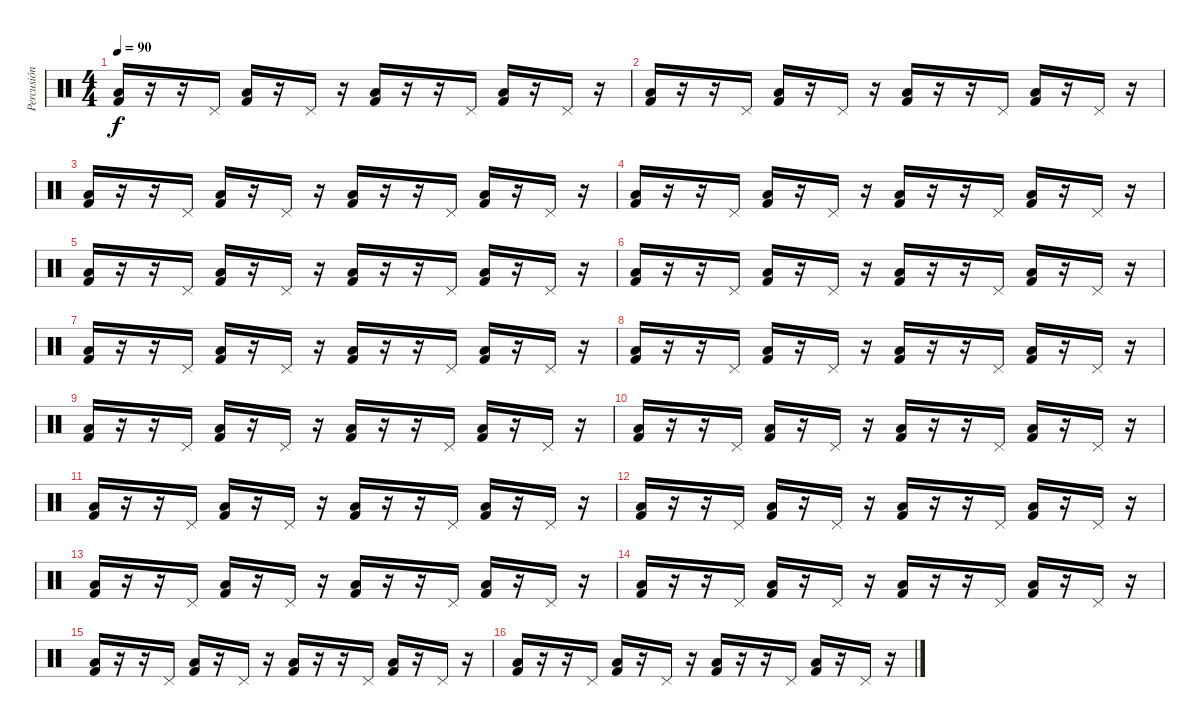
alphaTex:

\track ("Percusión" "Percusión") {instrument percussion}
\staff {score}
\articulation defaults
\ts (4 4)
\tempo 90
\clef neutral
\ks c
("Low Floor Tom (hit)" "Kick (hit) 2").16{dy f} r.16 r.16 "Pedal Hi-Hat (hit)".16 ("Low Floor Tom (hit)" "Kick (hit) 2").16 r.16 "Pedal Hi-Hat (hit)".16 r.16 ("Low Floor Tom (hit)" "Kick (hit) 2").16 r.16 r.16 "Pedal Hi-Hat (hit)".16 ("Low Floor Tom (hit)" "Kick (hit) 2").16 r.16 "Pedal Hi-Hat (hit)".16 r.16 |
("Low Floor Tom (hit)" "Kick (hit) 2").16 r.16 r.16 "Pedal Hi-Hat (hit)".16 ("Low Floor Tom (hit)" "Kick (hit) 2").16 r.16 "Pedal Hi-Hat (hit)".16 r.16 ("Low Floor Tom (hit)" "Kick (hit) 2").16 r.16 r.16 "Pedal Hi-Hat (hit)".16 ("Low Floor Tom (hit)" "Kick (hit) 2").16 r.16 "Pedal Hi-Hat (hit)".16 r.16 |
("Low Floor Tom (hit)" "Kick (hit) 2").16 r.16 r.16 "Pedal Hi-Hat (hit)".16 ("Low Floor Tom (hit)" "Kick (hit) 2").16 r.16 "Pedal Hi-Hat (hit)".16 r.16 ("Low Floor Tom (hit)" "Kick (hit) 2").16 r.16 r.16 "Pedal Hi-Hat (hit)".16 ("Low Floor Tom (hit)" "Kick (hit) 2").16 r.16 "Pedal Hi-Hat (hit)".16 r.16 |
("Low Floor Tom (hit)" "Kick (hit) 2").16 r.16 r.16 "Pedal Hi-Hat (hit)".16 ("Low Floor Tom (hit)" "Kick (hit) 2").16 r.16 "Pedal Hi-Hat (hit)".16 r.16 ("Low Floor Tom (hit)" "Kick (hit) 2").16 r.16 r.16 "Pedal Hi-Hat (hit)".16 ("Low Floor Tom (hit)" "Kick (hit) 2").16 r.16 "Pedal Hi-Hat (hit)".16 r.16 |
("Low Floor Tom (hit)" "Kick (hit) 2").16 r.16 r.16 "Pedal Hi-Hat (hit)".16 ("Low Floor Tom (hit)" "Kick (hit) 2").16 r.16 "Pedal Hi-Hat (hit)".16 r.16 ("Low Floor Tom (hit)" "Kick (hit) 2").16 r.16 r.16 "Pedal Hi-Hat (hit)".16 ("Low Floor Tom (hit)" "Kick (hit) 2").16 r.16 "Pedal Hi-Hat (hit)".16 r.16 |
("Low Floor Tom (hit)" "Kick (hit) 2").16 r.16 r.16 "Pedal Hi-Hat (hit)".16 ("Low Floor Tom (hit)" "Kick (hit) 2").16 r.16 "Pedal Hi-Hat (hit)".16 r.16 ("Low Floor Tom (hit)" "Kick (hit) 2").16 r.16 r.16 "Pedal Hi-Hat (hit)".16 ("Low Floor Tom (hit)" "Kick (hit) 2").16 r.16 "Pedal Hi-Hat (hit)".16 r.16 |
("Low Floor Tom (hit)" "Kick (hit) 2").16 r.16 r.16 "Pedal Hi-Hat (hit)".16 ("Low Floor Tom (hit)" "Kick (hit) 2").16 r.16 "Pedal Hi-Hat (hit)".16 r.16 ("Low Floor Tom (hit)" "Kick (hit) 2").16 r.16 r.16 "Pedal Hi-Hat (hit)".16 ("Low Floor Tom (hit)" "Kick (hit) 2").16 r.16 "Pedal Hi-Hat (hit)".16 r.16 |
("Low Floor Tom (hit)" "Kick (hit) 2").16 r.16 r.16 "Pedal Hi-Hat (hit)".16 ("Low Floor Tom (hit)" "Kick (hit) 2").16 r.16 "Pedal Hi-Hat (hit)".16 r.16 ("Low Floor Tom (hit)" "Kick (hit) 2").16 r.16 r.16 "Pedal Hi-Hat (hit)".16 ("Low Floor Tom (hit)" "Kick (hit) 2").16 r.16 "Pedal Hi-Hat (hit)".16 r.16 |
("Low Floor Tom (hit)" "Kick (hit) 2").16 r.16 r.16 "Pedal Hi-Hat (hit)".16 ("Low Floor Tom (hit)" "Kick (hit) 2").16 r.16 "Pedal Hi-Hat (hit)".16 r.16 ("Low Floor Tom (hit)" "Kick (hit) 2").16 r.16 r.16 "Pedal Hi-Hat (hit)".16 ("Low Floor Tom (hit)" "Kick (hit) 2").16 r.16 "Pedal Hi-Hat (hit)".16 r.16 |
("Low Floor Tom (hit)" "Kick (hit) 2").16 r.16 r.16 "Pedal Hi-Hat (hit)".16 ("Low Floor Tom (hit)" "Kick (hit) 2").16 r.16 "Pedal Hi-Hat (hit)".16 r.16 ("Low Floor Tom (hit)" "Kick (hit) 2").16 r.16 r.16 "Pedal Hi-Hat (hit)".16 ("Low Floor Tom (hit)" "Kick (hit) 2").16 r.16 "Pedal Hi-Hat (hit)".16 r.16 |
("Low Floor Tom (hit)" "Kick (hit) 2").16 r.16 r.16 "Pedal Hi-Hat (hit)".16 ("Low Floor Tom (hit)" "Kick (hit) 2").16 r.16 "Pedal Hi-Hat (hit)".16 r.16 ("Low Floor Tom (hit)" "Kick (hit) 2").16 r.16 r.16 "Pedal Hi-Hat (hit)".16 ("Low Floor Tom (hit)" "Kick (hit) 2").16 r.16 "Pedal Hi-Hat (hit)".16 r.16 |
("Low Floor Tom (hit)" "Kick (hit) 2").16 r.16 r.16 "Pedal Hi-Hat (hit)".16 ("Low Floor Tom (hit)" "Kick (hit) 2").16 r.16 "Pedal Hi-Hat (hit)".16 r.16 ("Low Floor Tom (hit)" "Kick (hit) 2").16 r.16 r.16 "Pedal Hi-Hat (hit)".16 ("Low Floor Tom (hit)" "Kick (hit) 2").16 r.16 "Pedal Hi-Hat (hit)".16 r.16 |
("Low Floor Tom (hit)" "Kick (hit) 2").16 r.16 r.16 "Pedal Hi-Hat (hit)".16 ("Low Floor Tom (hit)" "Kick (hit) 2").16 r.16 "Pedal Hi-Hat (hit)".16 r.16 ("Low Floor Tom (hit)" "Kick (hit) 2").16 r.16 r.16 "Pedal Hi-Hat (hit)".16 ("Low Floor Tom (hit)" "Kick (hit) 2").16 r.16 "Pedal Hi-Hat (hit)".16 r.16 |
("Low Floor Tom (hit)" "Kick (hit) 2").16 r.16 r.16 "Pedal Hi-Hat (hit)".16 ("Low Floor Tom (hit)" "Kick (hit) 2").16 r.16 "Pedal Hi-Hat (hit)".16 r.16 ("Low Floor Tom (hit)" "Kick (hit) 2").16 r.16 r.16 "Pedal Hi-Hat (hit)".16 ("Low Floor Tom (hit)" "Kick (hit) 2").16 r.16 "Pedal Hi-Hat (hit)".16 r.16 |
("Low Floor Tom (hit)" "Kick (hit) 2").16 r.16 r.16 "Pedal Hi-Hat (hit)".16 ("Low Floor Tom (hit)" "Kick (hit) 2").16 r.16 "Pedal Hi-Hat (hit)".16 r.16 ("Low Floor Tom (hit)" "Kick (hit) 2").16 r.16 r.16 "Pedal Hi-Hat (hit)".16 ("Low Floor Tom (hit)" "Kick (hit) 2").16 r.16 "Pedal Hi-Hat (hit)".16 r.16 |
("Low Floor Tom (hit)" "Kick (hit) 2").16 r.16 r.16 "Pedal Hi-Hat (hit)".16 ("Low Floor Tom (hit)" "Kick (hit) 2").16 r.16 "Pedal Hi-Hat (hit)".16 r.16 ("Low Floor Tom (hit)" "Kick (hit) 2").16 r.16 r.16 "Pedal Hi-Hat (hit)".16 ("Low Floor Tom (hit)" "Kick (hit) 2").16 r.16 "Pedal Hi-Hat (hit)".16 r.16
